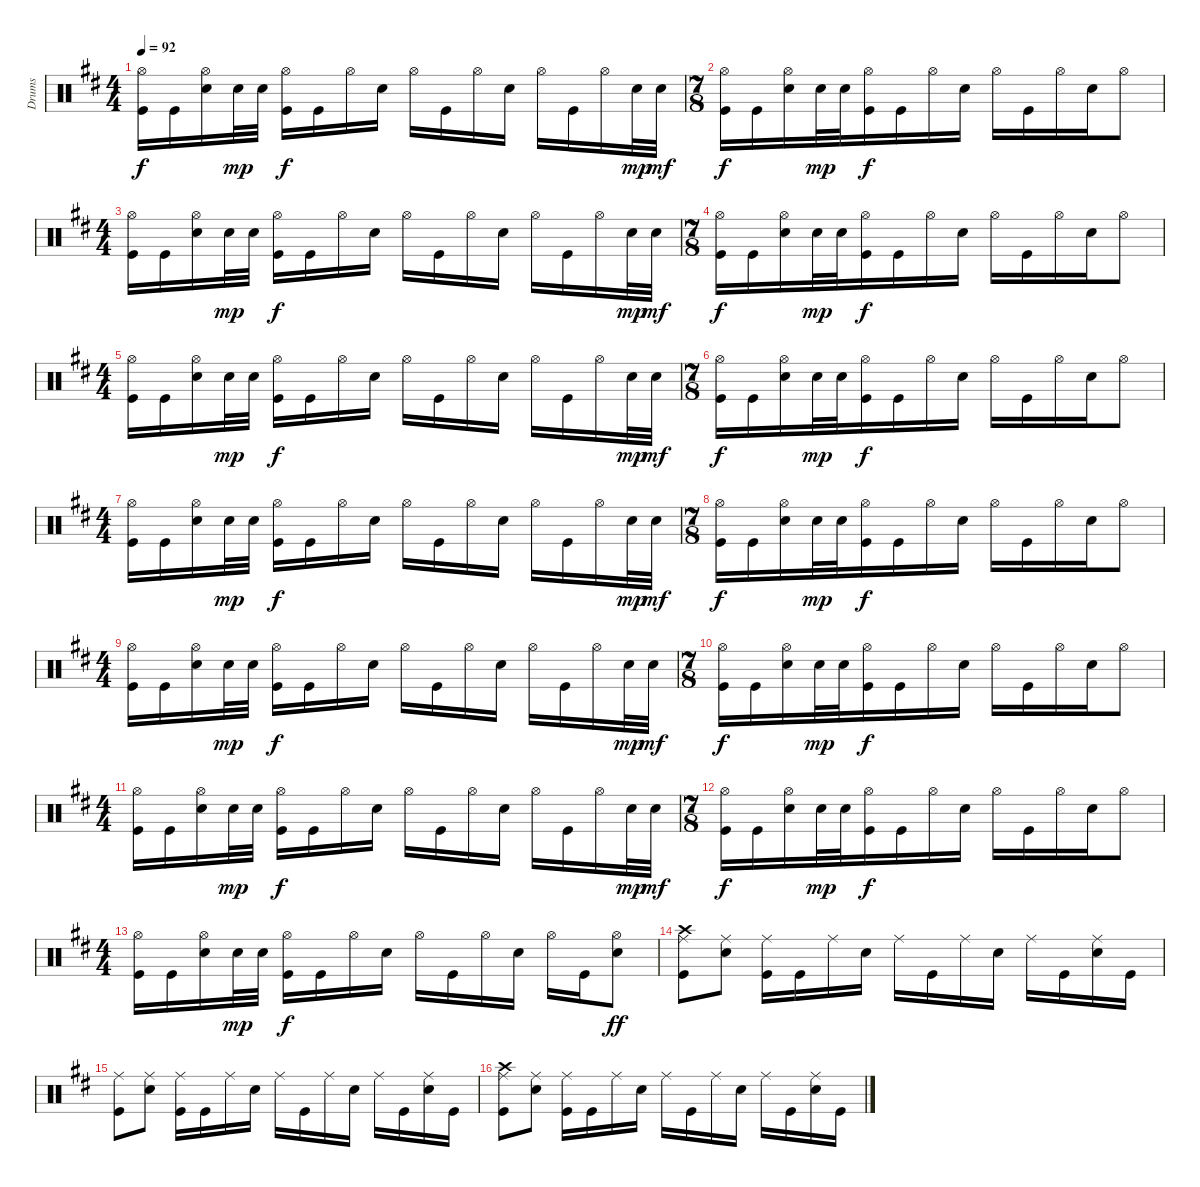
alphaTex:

\track ("Drums" "Drums") {instrument percussion}
\staff {score}
\articulation defaults
\ts (4 4)
\tempo 92
\clef neutral
\ks d
("Hi-Hat (open)" "Kick (hit)").16{dy f} "Kick (hit)".16 ("Hi-Hat (open)" "Snare (hit) 2").16 "Snare (hit) 2".32{dy mp} "Snare (hit) 2".32 ("Hi-Hat (open)" "Kick (hit)").16{dy f} "Kick (hit)".16 "Hi-Hat (open)".16 "Snare (hit) 2".16 "Hi-Hat (open)".16 "Kick (hit)".16 "Hi-Hat (open)".16 "Snare (hit) 2".16 "Hi-Hat (open)".16 "Kick (hit)".16 "Hi-Hat (open)".16 "Snare (hit) 2".32{dy mp} "Snare (hit) 2".32{dy mf} |
\ts (7 8)
("Hi-Hat (open)" "Kick (hit)").16{dy f} "Kick (hit)".16 ("Hi-Hat (open)" "Snare (hit) 2").16 "Snare (hit) 2".32{dy mp} "Snare (hit) 2".32 ("Hi-Hat (open)" "Kick (hit)").16{dy f} "Kick (hit)".16 "Hi-Hat (open)".16 "Snare (hit) 2".16 "Hi-Hat (open)".16 "Kick (hit)".16 "Hi-Hat (open)".16 "Snare (hit) 2".16 "Hi-Hat (open)".8 |
\ts (4 4)
("Hi-Hat (open)" "Kick (hit)").16 "Kick (hit)".16 ("Hi-Hat (open)" "Snare (hit) 2").16 "Snare (hit) 2".32{dy mp} "Snare (hit) 2".32 ("Hi-Hat (open)" "Kick (hit)").16{dy f} "Kick (hit)".16 "Hi-Hat (open)".16 "Snare (hit) 2".16 "Hi-Hat (open)".16 "Kick (hit)".16 "Hi-Hat (open)".16 "Snare (hit) 2".16 "Hi-Hat (open)".16 "Kick (hit)".16 "Hi-Hat (open)".16 "Snare (hit) 2".32{dy mp} "Snare (hit) 2".32{dy mf} |
\ts (7 8)
("Hi-Hat (open)" "Kick (hit)").16{dy f} "Kick (hit)".16 ("Hi-Hat (open)" "Snare (hit) 2").16 "Snare (hit) 2".32{dy mp} "Snare (hit) 2".32 ("Hi-Hat (open)" "Kick (hit)").16{dy f} "Kick (hit)".16 "Hi-Hat (open)".16 "Snare (hit) 2".16 "Hi-Hat (open)".16 "Kick (hit)".16 "Hi-Hat (open)".16 "Snare (hit) 2".16 "Hi-Hat (open)".8 |
\ts (4 4)
("Hi-Hat (open)" "Kick (hit)").16 "Kick (hit)".16 ("Hi-Hat (open)" "Snare (hit) 2").16 "Snare (hit) 2".32{dy mp} "Snare (hit) 2".32 ("Hi-Hat (open)" "Kick (hit)").16{dy f} "Kick (hit)".16 "Hi-Hat (open)".16 "Snare (hit) 2".16 "Hi-Hat (open)".16 "Kick (hit)".16 "Hi-Hat (open)".16 "Snare (hit) 2".16 "Hi-Hat (open)".16 "Kick (hit)".16 "Hi-Hat (open)".16 "Snare (hit) 2".32{dy mp} "Snare (hit) 2".32{dy mf} |
\ts (7 8)
("Hi-Hat (open)" "Kick (hit)").16{dy f} "Kick (hit)".16 ("Hi-Hat (open)" "Snare (hit) 2").16 "Snare (hit) 2".32{dy mp} "Snare (hit) 2".32 ("Hi-Hat (open)" "Kick (hit)").16{dy f} "Kick (hit)".16 "Hi-Hat (open)".16 "Snare (hit) 2".16 "Hi-Hat (open)".16 "Kick (hit)".16 "Hi-Hat (open)".16 "Snare (hit) 2".16 "Hi-Hat (open)".8 |
\ts (4 4)
("Hi-Hat (open)" "Kick (hit)").16 "Kick (hit)".16 ("Hi-Hat (open)" "Snare (hit) 2").16 "Snare (hit) 2".32{dy mp} "Snare (hit) 2".32 ("Hi-Hat (open)" "Kick (hit)").16{dy f} "Kick (hit)".16 "Hi-Hat (open)".16 "Snare (hit) 2".16 "Hi-Hat (open)".16 "Kick (hit)".16 "Hi-Hat (open)".16 "Snare (hit) 2".16 "Hi-Hat (open)".16 "Kick (hit)".16 "Hi-Hat (open)".16 "Snare (hit) 2".32{dy mp} "Snare (hit) 2".32{dy mf} |
\ts (7 8)
("Hi-Hat (open)" "Kick (hit)").16{dy f} "Kick (hit)".16 ("Hi-Hat (open)" "Snare (hit) 2").16 "Snare (hit) 2".32{dy mp} "Snare (hit) 2".32 ("Hi-Hat (open)" "Kick (hit)").16{dy f} "Kick (hit)".16 "Hi-Hat (open)".16 "Snare (hit) 2".16 "Hi-Hat (open)".16 "Kick (hit)".16 "Hi-Hat (open)".16 "Snare (hit) 2".16 "Hi-Hat (open)".8 |
\ts (4 4)
("Hi-Hat (open)" "Kick (hit)").16 "Kick (hit)".16 ("Hi-Hat (open)" "Snare (hit) 2").16 "Snare (hit) 2".32{dy mp} "Snare (hit) 2".32 ("Hi-Hat (open)" "Kick (hit)").16{dy f} "Kick (hit)".16 "Hi-Hat (open)".16 "Snare (hit) 2".16 "Hi-Hat (open)".16 "Kick (hit)".16 "Hi-Hat (open)".16 "Snare (hit) 2".16 "Hi-Hat (open)".16 "Kick (hit)".16 "Hi-Hat (open)".16 "Snare (hit) 2".32{dy mp} "Snare (hit) 2".32{dy mf} |
\ts (7 8)
("Hi-Hat (open)" "Kick (hit)").16{dy f} "Kick (hit)".16 ("Hi-Hat (open)" "Snare (hit) 2").16 "Snare (hit) 2".32{dy mp} "Snare (hit) 2".32 ("Hi-Hat (open)" "Kick (hit)").16{dy f} "Kick (hit)".16 "Hi-Hat (open)".16 "Snare (hit) 2".16 "Hi-Hat (open)".16 "Kick (hit)".16 "Hi-Hat (open)".16 "Snare (hit) 2".16 "Hi-Hat (open)".8 |
\ts (4 4)
("Hi-Hat (open)" "Kick (hit)").16 "Kick (hit)".16 ("Hi-Hat (open)" "Snare (hit) 2").16 "Snare (hit) 2".32{dy mp} "Snare (hit) 2".32 ("Hi-Hat (open)" "Kick (hit)").16{dy f} "Kick (hit)".16 "Hi-Hat (open)".16 "Snare (hit) 2".16 "Hi-Hat (open)".16 "Kick (hit)".16 "Hi-Hat (open)".16 "Snare (hit) 2".16 "Hi-Hat (open)".16 "Kick (hit)".16 "Hi-Hat (open)".16 "Snare (hit) 2".32{dy mp} "Snare (hit) 2".32{dy mf} |
\ts (7 8)
("Hi-Hat (open)" "Kick (hit)").16{dy f} "Kick (hit)".16 ("Hi-Hat (open)" "Snare (hit) 2").16 "Snare (hit) 2".32{dy mp} "Snare (hit) 2".32 ("Hi-Hat (open)" "Kick (hit)").16{dy f} "Kick (hit)".16 "Hi-Hat (open)".16 "Snare (hit) 2".16 "Hi-Hat (open)".16 "Kick (hit)".16 "Hi-Hat (open)".16 "Snare (hit) 2".16 "Hi-Hat (open)".8 |
\ts (4 4)
("Hi-Hat (open)" "Kick (hit)").16 "Kick (hit)".16 ("Hi-Hat (open)" "Snare (hit) 2").16 "Snare (hit) 2".32{dy mp} "Snare (hit) 2".32 ("Hi-Hat (open)" "Kick (hit)").16{dy f} "Kick (hit)".16 "Hi-Hat (open)".16 "Snare (hit) 2".16 "Hi-Hat (open)".16 "Kick (hit)".16 "Hi-Hat (open)".16 "Snare (hit) 2".16 "Hi-Hat (open)".16 "Kick (hit)".16 ("Hi-Hat (open)" "Snare (hit) 2").8{dy ff} |
("Crash high (hit)" "Ride (middle)" "Kick (hit)").8 ("Ride (middle)" "Snare (hit) 2").8 ("Ride (middle)" "Kick (hit)").16 "Kick (hit)".16 "Ride (middle)".16 "Snare (hit) 2".16 "Ride (middle)".16 "Kick (hit)".16 "Ride (middle)".16 "Snare (hit) 2".16 "Ride (middle)".16 "Kick (hit)".16 ("Ride (middle)" "Snare (hit) 2").16 "Kick (hit)".16 |
("Ride (middle)" "Kick (hit)").8 ("Ride (middle)" "Snare (hit) 2").8 ("Ride (middle)" "Kick (hit)").16 "Kick (hit)".16 "Ride (middle)".16 "Snare (hit) 2".16 "Ride (middle)".16 "Kick (hit)".16 "Ride (middle)".16 "Snare (hit) 2".16 "Ride (middle)".16 "Kick (hit)".16 ("Ride (middle)" "Snare (hit) 2").16 "Kick (hit)".16 |
("Crash high (hit)" "Ride (middle)" "Kick (hit)").8 ("Ride (middle)" "Snare (hit) 2").8 ("Ride (middle)" "Kick (hit)").16 "Kick (hit)".16 "Ride (middle)".16 "Snare (hit) 2".16 "Ride (middle)".16 "Kick (hit)".16 "Ride (middle)".16 "Snare (hit) 2".16 "Ride (middle)".16 "Kick (hit)".16 ("Ride (middle)" "Snare (hit) 2").16 "Kick (hit)".16
